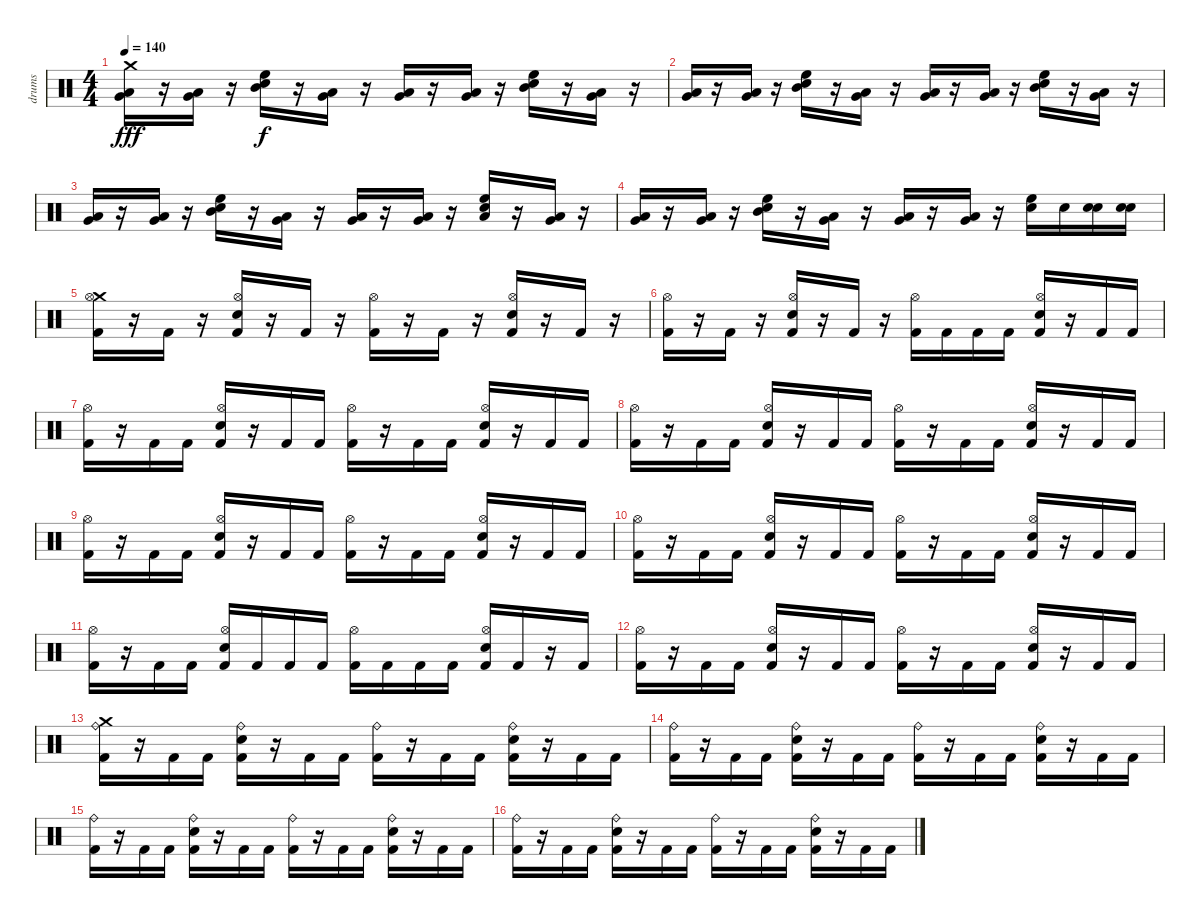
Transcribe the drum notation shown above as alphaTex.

\track ("drums" "drums") {instrument percussion}
\staff {score}
\articulation defaults
\ts (4 4)
\tempo 140
\clef neutral
\ks c
("Crash medium (hit)" "Very Low Tom (hit)" "Low Tom (hit)").16{dy fff} r.16 ("Very Low Tom (hit)" "Low Tom (hit)").16 r.16 ("High Floor Tom (hit)" "Electric Snare (hit)" "Mid Tom (hit)").16{dy f} r.16 ("Very Low Tom (hit)" "Low Tom (hit)").16 r.16 ("Very Low Tom (hit)" "Low Tom (hit)").16 r.16 ("Very Low Tom (hit)" "Low Tom (hit)").16 r.16 ("High Floor Tom (hit)" "Electric Snare (hit)" "Mid Tom (hit)").16 r.16 ("Very Low Tom (hit)" "Low Tom (hit)").16 r.16 |
("Very Low Tom (hit)" "Low Tom (hit)").16 r.16 ("Very Low Tom (hit)" "Low Tom (hit)").16 r.16 ("High Floor Tom (hit)" "Electric Snare (hit)" "Mid Tom (hit)").16 r.16 ("Very Low Tom (hit)" "Low Tom (hit)").16 r.16 ("Very Low Tom (hit)" "Low Tom (hit)").16 r.16 ("Very Low Tom (hit)" "Low Tom (hit)").16 r.16 ("High Floor Tom (hit)" "Electric Snare (hit)" "Mid Tom (hit)").16 r.16 ("Very Low Tom (hit)" "Low Tom (hit)").16 r.16 |
("Very Low Tom (hit)" "Low Tom (hit)").16 r.16 ("Very Low Tom (hit)" "Low Tom (hit)").16 r.16 ("High Floor Tom (hit)" "Electric Snare (hit)" "Mid Tom (hit)").16 r.16 ("Very Low Tom (hit)" "Low Tom (hit)").16 r.16 ("Very Low Tom (hit)" "Low Tom (hit)").16 r.16 ("Very Low Tom (hit)" "Low Tom (hit)").16 r.16 ("High Floor Tom (hit)" "Electric Snare (hit)" "Low Tom (hit)").16 r.16 ("Very Low Tom (hit)" "Low Tom (hit)").16 r.16 |
("Very Low Tom (hit)" "Low Tom (hit)").16 r.16 ("Very Low Tom (hit)" "Low Tom (hit)").16 r.16 ("High Floor Tom (hit)" "Electric Snare (hit)" "Mid Tom (hit)").16 r.16 ("Very Low Tom (hit)" "Low Tom (hit)").16 r.16 ("Very Low Tom (hit)" "Low Tom (hit)").16 r.16 ("Very Low Tom (hit)" "Low Tom (hit)").16 r.16 ("Electric Snare (hit)" "High Floor Tom (hit)").16 "Electric Snare (hit)".16 ("Electric Snare (hit)" "Electric Snare (hit)").16 ("Electric Snare (hit)" "Electric Snare (hit)").16 |
("Crash medium (hit)" "Hi-Hat (open)" "Kick (hit) 2").16 r.16 "Kick (hit) 2".16 r.16 ("Hi-Hat (open)" "Electric Snare (hit)" "Kick (hit) 2").16 r.16 "Kick (hit) 2".16 r.16 ("Hi-Hat (open)" "Kick (hit) 2").16 r.16 "Kick (hit) 2".16 r.16 ("Hi-Hat (open)" "Electric Snare (hit)" "Kick (hit) 2").16 r.16 "Kick (hit) 2".16 r.16 |
("Hi-Hat (open)" "Kick (hit) 2").16 r.16 "Kick (hit) 2".16 r.16 ("Hi-Hat (open)" "Electric Snare (hit)" "Kick (hit) 2").16 r.16 "Kick (hit) 2".16 r.16 ("Hi-Hat (open)" "Kick (hit) 2").16 "Kick (hit) 2".16 "Kick (hit) 2".16 "Kick (hit) 2".16 ("Hi-Hat (open)" "Electric Snare (hit)" "Kick (hit) 2").16 r.16 "Kick (hit) 2".16 "Kick (hit) 2".16 |
("Hi-Hat (open)" "Kick (hit) 2").16 r.16 "Kick (hit) 2".16 "Kick (hit) 2".16 ("Hi-Hat (open)" "Electric Snare (hit)" "Kick (hit) 2").16 r.16 "Kick (hit) 2".16 "Kick (hit) 2".16 ("Hi-Hat (open)" "Kick (hit) 2").16 r.16 "Kick (hit) 2".16 "Kick (hit) 2".16 ("Hi-Hat (open)" "Electric Snare (hit)" "Kick (hit) 2").16 r.16 "Kick (hit) 2".16 "Kick (hit) 2".16 |
("Hi-Hat (open)" "Kick (hit) 2").16 r.16 "Kick (hit) 2".16 "Kick (hit) 2".16 ("Hi-Hat (open)" "Electric Snare (hit)" "Kick (hit) 2").16 r.16 "Kick (hit) 2".16 "Kick (hit) 2".16 ("Hi-Hat (open)" "Kick (hit) 2").16 r.16 "Kick (hit) 2".16 "Kick (hit) 2".16 ("Hi-Hat (open)" "Electric Snare (hit)" "Kick (hit) 2").16 r.16 "Kick (hit) 2".16 "Kick (hit) 2".16 |
("Hi-Hat (open)" "Kick (hit) 2").16 r.16 "Kick (hit) 2".16 "Kick (hit) 2".16 ("Hi-Hat (open)" "Electric Snare (hit)" "Kick (hit) 2").16 r.16 "Kick (hit) 2".16 "Kick (hit) 2".16 ("Hi-Hat (open)" "Kick (hit) 2").16 r.16 "Kick (hit) 2".16 "Kick (hit) 2".16 ("Hi-Hat (open)" "Electric Snare (hit)" "Kick (hit) 2").16 r.16 "Kick (hit) 2".16 "Kick (hit) 2".16 |
("Hi-Hat (open)" "Kick (hit) 2").16 r.16 "Kick (hit) 2".16 "Kick (hit) 2".16 ("Hi-Hat (open)" "Electric Snare (hit)" "Kick (hit) 2").16 r.16 "Kick (hit) 2".16 "Kick (hit) 2".16 ("Hi-Hat (open)" "Kick (hit) 2").16 r.16 "Kick (hit) 2".16 "Kick (hit) 2".16 ("Hi-Hat (open)" "Electric Snare (hit)" "Kick (hit) 2").16 r.16 "Kick (hit) 2".16 "Kick (hit) 2".16 |
("Hi-Hat (open)" "Kick (hit) 2").16 r.16 "Kick (hit) 2".16 "Kick (hit) 2".16 ("Hi-Hat (open)" "Electric Snare (hit)" "Kick (hit) 2").16 "Kick (hit) 2".16 "Kick (hit) 2".16 "Kick (hit) 2".16 ("Hi-Hat (open)" "Kick (hit) 2").16 "Kick (hit) 2".16 "Kick (hit) 2".16 "Kick (hit) 2".16 ("Hi-Hat (open)" "Electric Snare (hit)" "Kick (hit) 2").16 "Kick (hit) 2".16 r.16 "Kick (hit) 2".16 |
("Hi-Hat (open)" "Kick (hit) 2").16 r.16 "Kick (hit) 2".16 "Kick (hit) 2".16 ("Hi-Hat (open)" "Electric Snare (hit)" "Kick (hit) 2").16 r.16 "Kick (hit) 2".16 "Kick (hit) 2".16 ("Hi-Hat (open)" "Kick (hit) 2").16 r.16 "Kick (hit) 2".16 "Kick (hit) 2".16 ("Hi-Hat (open)" "Electric Snare (hit)" "Kick (hit) 2").16 r.16 "Kick (hit) 2".16 "Kick (hit) 2".16 |
("Crash medium (hit)" "Ride (bell)" "Kick (hit) 2").16 r.16 "Kick (hit) 2".16 "Kick (hit) 2".16 ("Ride (bell)" "Electric Snare (hit)" "Kick (hit) 2").16 r.16 "Kick (hit) 2".16 "Kick (hit) 2".16 ("Ride (bell)" "Kick (hit) 2").16 r.16 "Kick (hit) 2".16 "Kick (hit) 2".16 ("Ride (bell)" "Electric Snare (hit)" "Kick (hit) 2").16 r.16 "Kick (hit) 2".16 "Kick (hit) 2".16 |
("Ride (bell)" "Kick (hit) 2").16 r.16 "Kick (hit) 2".16 "Kick (hit) 2".16 ("Ride (bell)" "Electric Snare (hit)" "Kick (hit) 2").16 r.16 "Kick (hit) 2".16 "Kick (hit) 2".16 ("Ride (bell)" "Kick (hit) 2").16 r.16 "Kick (hit) 2".16 "Kick (hit) 2".16 ("Ride (bell)" "Electric Snare (hit)" "Kick (hit) 2").16 r.16 "Kick (hit) 2".16 "Kick (hit) 2".16 |
("Ride (bell)" "Kick (hit) 2").16 r.16 "Kick (hit) 2".16 "Kick (hit) 2".16 ("Ride (bell)" "Electric Snare (hit)" "Kick (hit) 2").16 r.16 "Kick (hit) 2".16 "Kick (hit) 2".16 ("Ride (bell)" "Kick (hit) 2").16 r.16 "Kick (hit) 2".16 "Kick (hit) 2".16 ("Ride (bell)" "Electric Snare (hit)" "Kick (hit) 2").16 r.16 "Kick (hit) 2".16 "Kick (hit) 2".16 |
("Ride (bell)" "Kick (hit) 2").16 r.16 "Kick (hit) 2".16 "Kick (hit) 2".16 ("Ride (bell)" "Electric Snare (hit)" "Kick (hit) 2").16 r.16 "Kick (hit) 2".16 "Kick (hit) 2".16 ("Ride (bell)" "Kick (hit) 2").16 r.16 "Kick (hit) 2".16 "Kick (hit) 2".16 ("Ride (bell)" "Electric Snare (hit)" "Kick (hit) 2").16 r.16 "Kick (hit) 2".16 "Kick (hit) 2".16
